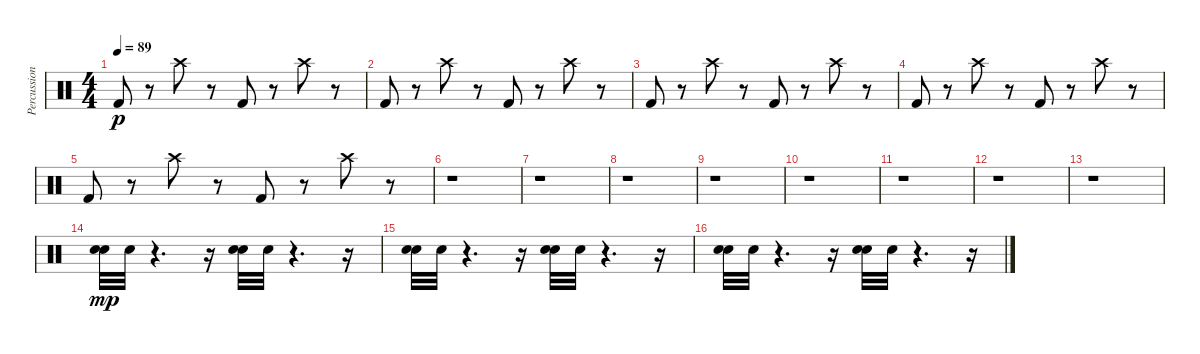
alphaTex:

\track ("Percussion" "Percussion") {instrument percussion}
\staff {score}
\articulation defaults
\ts (4 4)
\tempo 89
\clef neutral
\ks c "Kick (hit) 2".8{dy p}
r.8 "Crash high (hit)".8 r.8 "Kick (hit) 2".8 r.8 "Crash high (hit)".8 r.8 |
"Kick (hit) 2".8 r.8 "Crash high (hit)".8 r.8 "Kick (hit) 2".8 r.8 "Crash high (hit)".8 r.8 |
"Kick (hit) 2".8 r.8 "Crash high (hit)".8 r.8 "Kick (hit) 2".8 r.8 "Crash high (hit)".8 r.8 |
"Kick (hit) 2".8 r.8 "Crash high (hit)".8 r.8 "Kick (hit) 2".8 r.8 "Crash high (hit)".8 r.8 |
"Kick (hit) 2".8 r.8 "Crash high (hit)".8 r.8 "Kick (hit) 2".8 r.8 "Crash high (hit)".8 r.8 |
r.1 |
r.1 |
r.1 |
r.1 |
r.1 |
r.1 |
r.1 |
r.1 |
("Snare (hit) 2" "Snare (hit) 2").32{dy mp} "Snare (hit) 2".32 r.4{d} r.16 ("Snare (hit) 2" "Snare (hit) 2").32 "Snare (hit) 2".32 r.4{d} r.16 |
("Snare (hit) 2" "Snare (hit) 2").32 "Snare (hit) 2".32 r.4{d} r.16 ("Snare (hit) 2" "Snare (hit) 2").32 "Snare (hit) 2".32 r.4{d} r.16 |
("Snare (hit) 2" "Snare (hit) 2").32 "Snare (hit) 2".32 r.4{d} r.16 ("Snare (hit) 2" "Snare (hit) 2").32 "Snare (hit) 2".32 r.4{d} r.16
